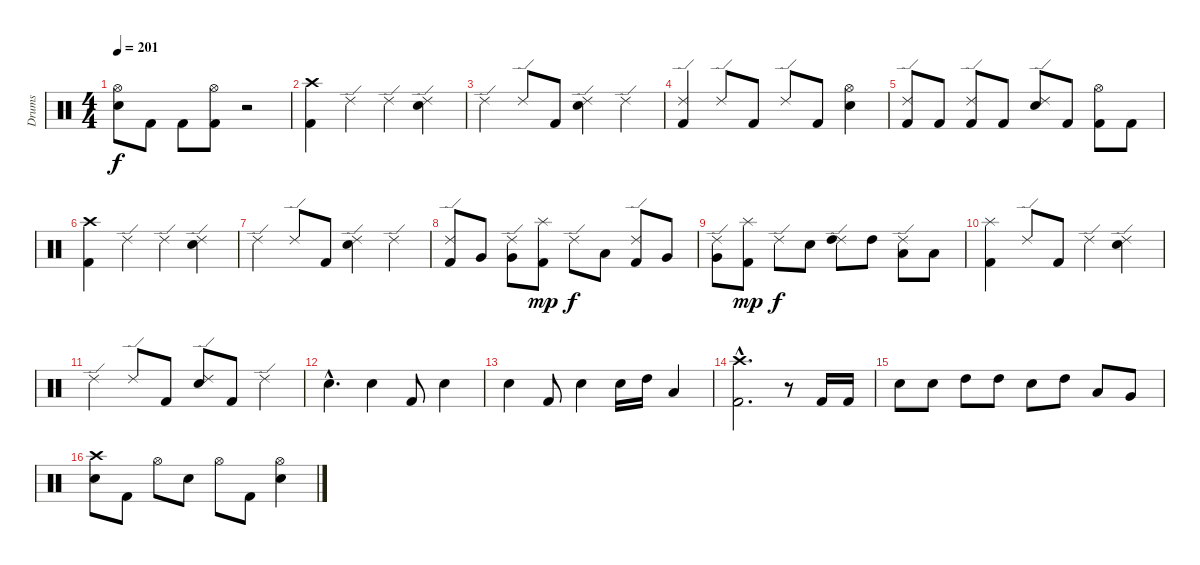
\track ("Drums" "Drums") {instrument percussion}
\staff {score}
\articulation defaults
\ts (4 4)
\tempo 201
\clef neutral
\ks c
("Hi-Hat (open)" "Snare (hit) 2").8{dy f} "Kick (hit) 2".8 "Kick (hit) 2".8 ("Hi-Hat (open)" "Kick (hit) 2").8 r.2 |
("Crash high (hit)" "Kick (hit) 2").4 "Ride (edge) 2".4 "Ride (edge) 2".4 ("Ride (edge) 2" "Snare (hit) 2").4 |
"Ride (edge) 2".4 "Ride (edge) 2".8 "Kick (hit) 2".8 ("Ride (edge) 2" "Snare (hit) 2").4 "Ride (edge) 2".4 |
("Ride (edge) 2" "Kick (hit) 2").4 "Ride (edge) 2".8 "Kick (hit) 2".8 "Ride (edge) 2".8 "Kick (hit) 2".8 ("Hi-Hat (open)" "Snare (hit) 2").4 |
("Ride (edge) 2" "Kick (hit) 2").8 "Kick (hit) 2".8 ("Ride (edge) 2" "Kick (hit) 2").8 "Kick (hit) 2".8 ("Ride (edge) 2" "Snare (hit) 2").8 "Kick (hit) 2".8 ("Hi-Hat (open)" "Kick (hit) 2").8 "Kick (hit) 2".8 |
("Crash high (hit)" "Kick (hit) 2").4 "Ride (edge) 2".4 "Ride (edge) 2".4 ("Ride (edge) 2" "Snare (hit) 2").4 |
"Ride (edge) 2".4 "Ride (edge) 2".8 "Kick (hit) 2".8 ("Ride (edge) 2" "Snare (hit) 2").4 "Ride (edge) 2".4 |
("Ride (edge) 2" "Kick (hit) 2").8 "Very Low Tom (hit)".8 ("Ride (edge) 2" "Very Low Tom (hit)").8 ("Splash (hit)" "Kick (hit) 2").8{dy mp} "Ride (edge) 2".8{dy f} "Low Tom (hit)".8 ("Ride (edge) 2" "Kick (hit) 2").8 "Very Low Tom (hit)".8 |
("Ride (edge) 2" "Very Low Tom (hit)").8 ("Splash (hit)" "Kick (hit) 2").8{dy mp} "Ride (edge) 2".8{dy f} "Snare (hit) 2".8 ("Ride (edge) 2" "High Tom (hit)").8 "High Tom (hit)".8 ("Ride (edge) 2" "Low Tom (hit)").8 "Low Tom (hit)".8 |
("Splash (hit)" "Kick (hit) 2").4 "Ride (edge) 2".8 "Kick (hit) 2".8 "Ride (edge) 2".4 ("Ride (edge) 2" "Snare (hit) 2").4 |
"Ride (edge) 2".4 "Ride (edge) 2".8 "Kick (hit) 2".8 ("Ride (edge) 2" "Snare (hit) 2").8 "Kick (hit) 2".8 "Ride (edge) 2".4 |
"Snare (hit) 2"{hac}.4{d} "Snare (hit) 2".4 "Kick (hit) 2".8 "Snare (hit) 2".4 |
"Snare (hit) 2".4 "Kick (hit) 2".8 "Snare (hit) 2".4 "Snare (hit) 2".16 "High Tom (hit)".16 "Low Tom (hit)".4 |
("Crash high (hit)"{hac} "Kick (hit) 2"{hac}).2{d} r.8 "Kick (hit) 2".16 "Kick (hit) 2".16 |
"Snare (hit) 2".8 "Snare (hit) 2".8 "High Tom (hit)".8 "High Tom (hit)".8 "Snare (hit) 2".8 "High Tom (hit)".8 "Low Tom (hit)".8 "Very Low Tom (hit)".8 |
("Crash high (hit)" "Snare (hit) 2").8 "Kick (hit) 2".8 "Hi-Hat (open)".8 "Snare (hit) 2".8 "Hi-Hat (open)".8 "Kick (hit) 2".8 ("Hi-Hat (open)" "Snare (hit) 2").4
